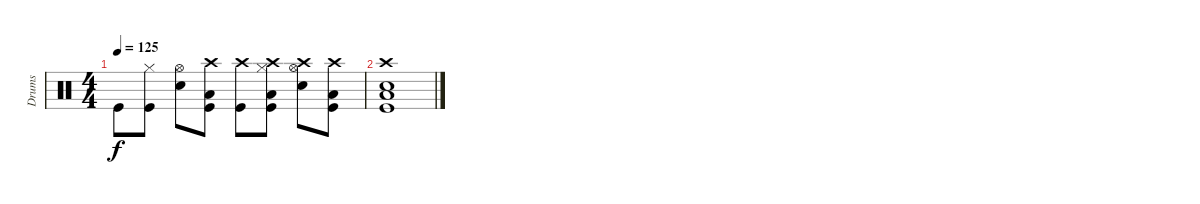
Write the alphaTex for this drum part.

\track ("Drums" "Drums") {instrument percussion}
\staff {score}
\articulation defaults
\ts (4 4)
\tempo 125
\clef neutral
\ks c "Kick (hit)".8{dy f}
("Hi-Hat (closed)" "Kick (hit)").8 ("Hi-Hat (open)" "Snare (hit) 2").8 ("Low Floor Tom (hit)" "Crash high (hit)" "Kick (hit)").8 ("Crash high (hit)" "Kick (hit)").8 ("Low Floor Tom (hit)" "Crash high (hit)" "Hi-Hat (closed)" "Kick (hit)").8 ("Crash high (hit)" "Hi-Hat (open)" "Snare (hit) 2").8 ("Low Floor Tom (hit)" "Crash high (hit)" "Kick (hit)").8 |
("Crash high (hit)" "Snare (hit) 2" "Low Floor Tom (hit)" "Kick (hit)").1
